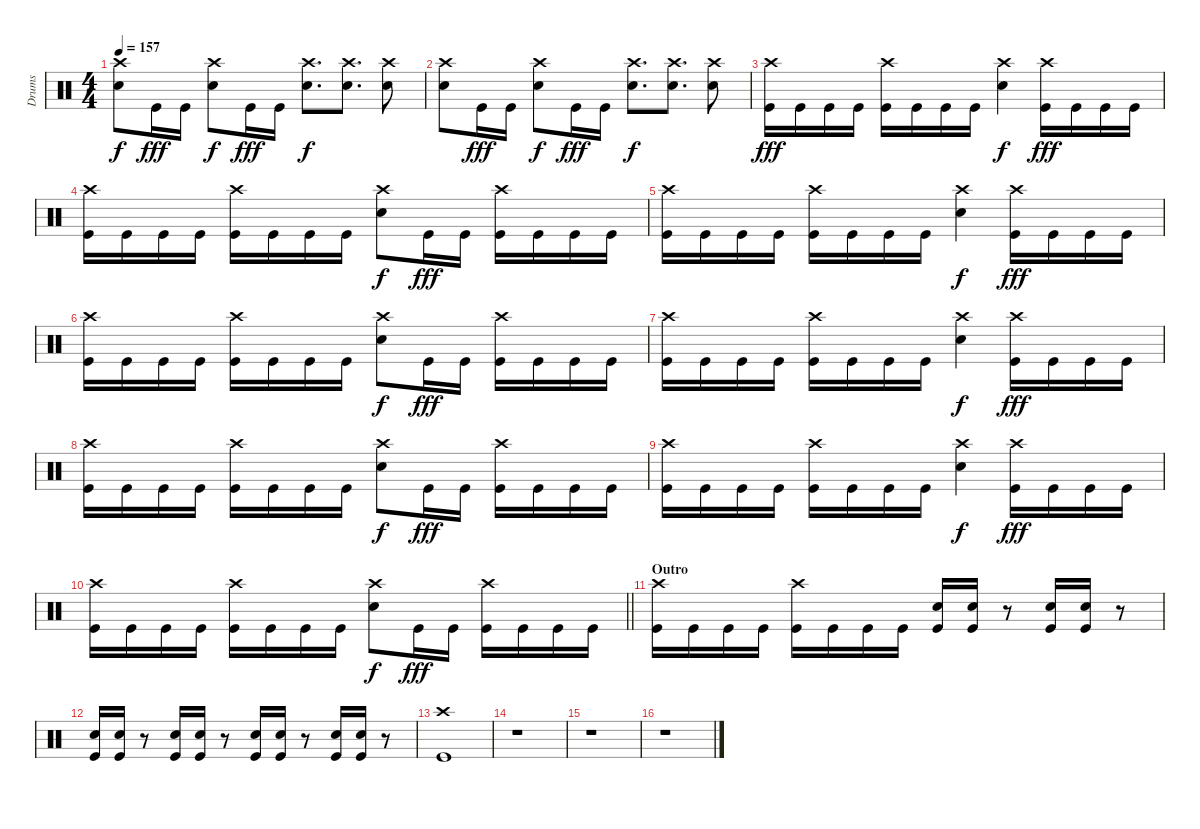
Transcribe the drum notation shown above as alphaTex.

\track ("Drums" "Drums") {instrument percussion}
\staff {score}
\articulation defaults
\ts (4 4)
\tempo 157
\clef neutral
\ks c
("Crash high (hit)" "Snare (hit) 2").8{dy f} "Kick (hit)".16{dy fff} "Kick (hit)".16 ("Crash high (hit)" "Snare (hit) 2").8{dy f} "Kick (hit)".16{dy fff} "Kick (hit)".16 ("Crash high (hit)" "Snare (hit) 2").8{d dy f} ("Crash high (hit)" "Snare (hit) 2").8{d} ("Crash high (hit)" "Snare (hit) 2").8 |
("Crash high (hit)" "Snare (hit) 2").8 "Kick (hit)".16{dy fff} "Kick (hit)".16 ("Crash high (hit)" "Snare (hit) 2").8{dy f} "Kick (hit)".16{dy fff} "Kick (hit)".16 ("Crash high (hit)" "Snare (hit) 2").8{d dy f} ("Crash high (hit)" "Snare (hit) 2").8{d} ("Crash high (hit)" "Snare (hit) 2").8 |
("Crash high (hit)" "Kick (hit)").16{dy fff} "Kick (hit)".16 "Kick (hit)".16 "Kick (hit)".16 ("Crash high (hit)" "Kick (hit)").16 "Kick (hit)".16 "Kick (hit)".16 "Kick (hit)".16 ("Crash high (hit)" "Snare (hit) 2").4{dy f} ("Crash high (hit)" "Kick (hit)").16{dy fff} "Kick (hit)".16 "Kick (hit)".16 "Kick (hit)".16 |
("Crash high (hit)" "Kick (hit)").16 "Kick (hit)".16 "Kick (hit)".16 "Kick (hit)".16 ("Crash high (hit)" "Kick (hit)").16 "Kick (hit)".16 "Kick (hit)".16 "Kick (hit)".16 ("Crash high (hit)" "Snare (hit) 2").8{dy f} "Kick (hit)".16{dy fff} "Kick (hit)".16 ("Crash high (hit)" "Kick (hit)").16 "Kick (hit)".16 "Kick (hit)".16 "Kick (hit)".16 |
("Crash high (hit)" "Kick (hit)").16 "Kick (hit)".16 "Kick (hit)".16 "Kick (hit)".16 ("Crash high (hit)" "Kick (hit)").16 "Kick (hit)".16 "Kick (hit)".16 "Kick (hit)".16 ("Crash high (hit)" "Snare (hit) 2").4{dy f} ("Crash high (hit)" "Kick (hit)").16{dy fff} "Kick (hit)".16 "Kick (hit)".16 "Kick (hit)".16 |
("Crash high (hit)" "Kick (hit)").16 "Kick (hit)".16 "Kick (hit)".16 "Kick (hit)".16 ("Crash high (hit)" "Kick (hit)").16 "Kick (hit)".16 "Kick (hit)".16 "Kick (hit)".16 ("Crash high (hit)" "Snare (hit) 2").8{dy f} "Kick (hit)".16{dy fff} "Kick (hit)".16 ("Crash high (hit)" "Kick (hit)").16 "Kick (hit)".16 "Kick (hit)".16 "Kick (hit)".16 |
("Crash high (hit)" "Kick (hit)").16 "Kick (hit)".16 "Kick (hit)".16 "Kick (hit)".16 ("Crash high (hit)" "Kick (hit)").16 "Kick (hit)".16 "Kick (hit)".16 "Kick (hit)".16 ("Crash high (hit)" "Snare (hit) 2").4{dy f} ("Crash high (hit)" "Kick (hit)").16{dy fff} "Kick (hit)".16 "Kick (hit)".16 "Kick (hit)".16 |
("Crash high (hit)" "Kick (hit)").16 "Kick (hit)".16 "Kick (hit)".16 "Kick (hit)".16 ("Crash high (hit)" "Kick (hit)").16 "Kick (hit)".16 "Kick (hit)".16 "Kick (hit)".16 ("Crash high (hit)" "Snare (hit) 2").8{dy f} "Kick (hit)".16{dy fff} "Kick (hit)".16 ("Crash high (hit)" "Kick (hit)").16 "Kick (hit)".16 "Kick (hit)".16 "Kick (hit)".16 |
("Crash high (hit)" "Kick (hit)").16 "Kick (hit)".16 "Kick (hit)".16 "Kick (hit)".16 ("Crash high (hit)" "Kick (hit)").16 "Kick (hit)".16 "Kick (hit)".16 "Kick (hit)".16 ("Crash high (hit)" "Snare (hit) 2").4{dy f} ("Crash high (hit)" "Kick (hit)").16{dy fff} "Kick (hit)".16 "Kick (hit)".16 "Kick (hit)".16 |
\barLineRight lightlight
("Crash high (hit)" "Kick (hit)").16 "Kick (hit)".16 "Kick (hit)".16 "Kick (hit)".16 ("Crash high (hit)" "Kick (hit)").16 "Kick (hit)".16 "Kick (hit)".16 "Kick (hit)".16 ("Crash high (hit)" "Snare (hit) 2").8{dy f} "Kick (hit)".16{dy fff} "Kick (hit)".16 ("Crash high (hit)" "Kick (hit)").16 "Kick (hit)".16 "Kick (hit)".16 "Kick (hit)".16 |
\section ("" "Outro")
("Crash high (hit)" "Kick (hit)").16 "Kick (hit)".16 "Kick (hit)".16 "Kick (hit)".16 ("Crash high (hit)" "Kick (hit)").16 "Kick (hit)".16 "Kick (hit)".16 "Kick (hit)".16 ("Snare (hit) 2" "Kick (hit)").16 ("Snare (hit) 2" "Kick (hit)").16 r.8 ("Snare (hit) 2" "Kick (hit)").16 ("Snare (hit) 2" "Kick (hit)").16 r.8 |
("Snare (hit) 2" "Kick (hit)").16 ("Snare (hit) 2" "Kick (hit)").16 r.8 ("Snare (hit) 2" "Kick (hit)").16 ("Snare (hit) 2" "Kick (hit)").16 r.8 ("Snare (hit) 2" "Kick (hit)").16 ("Snare (hit) 2" "Kick (hit)").16 r.8 ("Snare (hit) 2" "Kick (hit)").16 ("Snare (hit) 2" "Kick (hit)").16 r.8 |
("Crash high (hit)" "Kick (hit)").1 |
r.1 |
r.1 |
r.1
